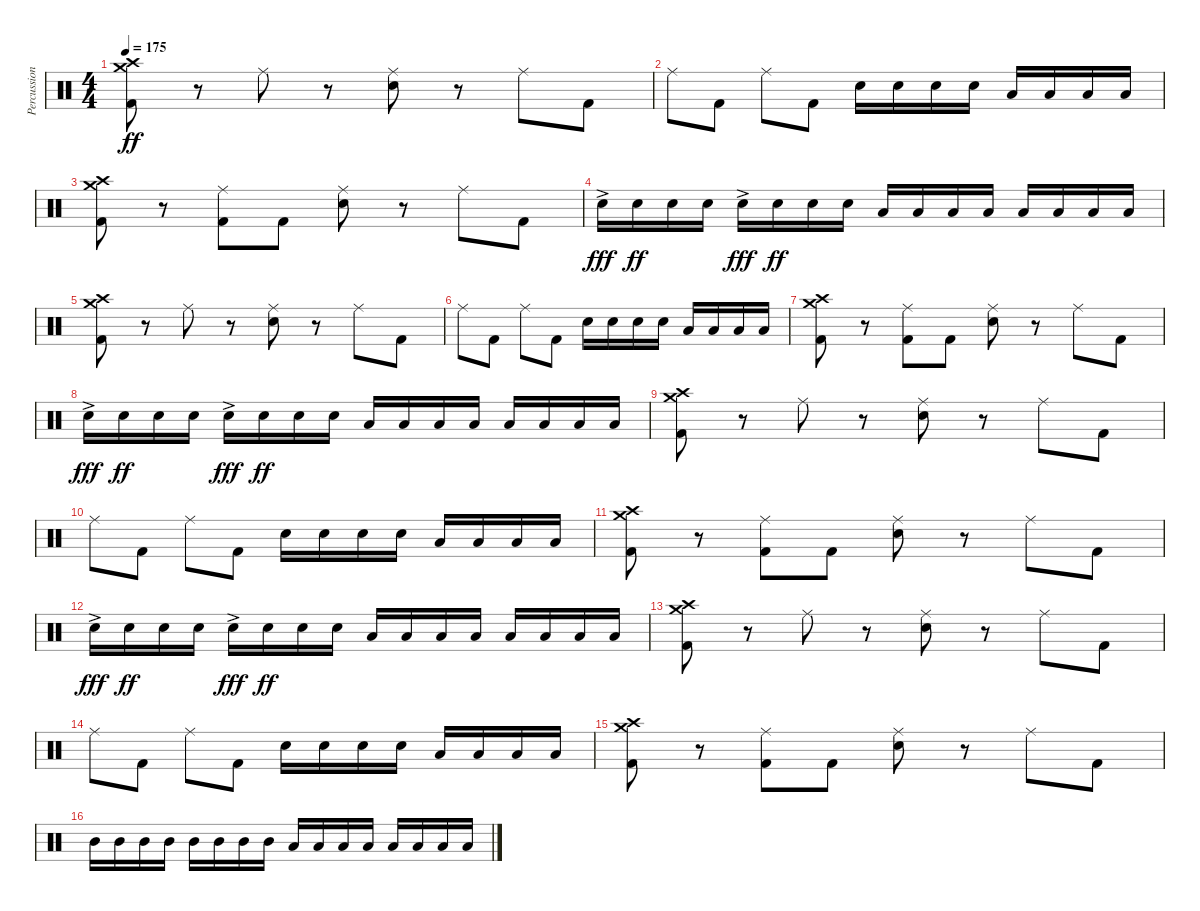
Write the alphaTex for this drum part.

\track ("Percussion" "Percussion") {instrument percussion}
\staff {score}
\articulation defaults
\ts (4 4)
\tempo 175
\clef neutral
\ks c
("Kick (hit) 2" "Crash medium (hit)" "Crash high (hit)").8{dy ff} r.8 "Ride (middle)".8 r.8 ("Electric Snare (hit)" "Ride (middle)").8 r.8 "Ride (middle)".8 "Kick (hit) 2".8 |
"Ride (middle)".8 "Kick (hit) 2".8 "Ride (middle)".8 "Kick (hit) 2".8 "Electric Snare (hit)".16 "Electric Snare (hit)".16 "Electric Snare (hit)".16 "Electric Snare (hit)".16 "Low Floor Tom (hit)".16 "Low Floor Tom (hit)".16 "Low Floor Tom (hit)".16 "Low Floor Tom (hit)".16 |
("Kick (hit) 2" "Crash medium (hit)" "Crash high (hit)").8 r.8 ("Kick (hit) 2" "Ride (middle)").8 "Kick (hit) 2".8 ("Electric Snare (hit)" "Ride (middle)").8 r.8 "Ride (middle)".8 "Kick (hit) 2".8 |
"Electric Snare (hit)"{ac}.16{dy fff} "Electric Snare (hit)".16{dy ff} "Electric Snare (hit)".16 "Electric Snare (hit)".16 "Electric Snare (hit)"{ac}.16{dy fff} "Electric Snare (hit)".16{dy ff} "Electric Snare (hit)".16 "Electric Snare (hit)".16 "Low Tom (hit)".16 "Low Tom (hit)".16 "Low Tom (hit)".16 "Low Tom (hit)".16 "Low Floor Tom (hit)".16 "Low Floor Tom (hit)".16 "Low Floor Tom (hit)".16 "Low Floor Tom (hit)".16 |
("Kick (hit) 2" "Crash medium (hit)" "Crash high (hit)").8 r.8 "Ride (middle)".8 r.8 ("Electric Snare (hit)" "Ride (middle)").8 r.8 "Ride (middle)".8 "Kick (hit) 2".8 |
"Ride (middle)".8 "Kick (hit) 2".8 "Ride (middle)".8 "Kick (hit) 2".8 "Electric Snare (hit)".16 "Electric Snare (hit)".16 "Electric Snare (hit)".16 "Electric Snare (hit)".16 "Low Floor Tom (hit)".16 "Low Floor Tom (hit)".16 "Low Floor Tom (hit)".16 "Low Floor Tom (hit)".16 |
("Kick (hit) 2" "Crash medium (hit)" "Crash high (hit)").8 r.8 ("Kick (hit) 2" "Ride (middle)").8 "Kick (hit) 2".8 ("Electric Snare (hit)" "Ride (middle)").8 r.8 "Ride (middle)".8 "Kick (hit) 2".8 |
"Electric Snare (hit)"{ac}.16{dy fff} "Electric Snare (hit)".16{dy ff} "Electric Snare (hit)".16 "Electric Snare (hit)".16 "Electric Snare (hit)"{ac}.16{dy fff} "Electric Snare (hit)".16{dy ff} "Electric Snare (hit)".16 "Electric Snare (hit)".16 "Low Tom (hit)".16 "Low Tom (hit)".16 "Low Tom (hit)".16 "Low Tom (hit)".16 "Low Floor Tom (hit)".16 "Low Floor Tom (hit)".16 "Low Floor Tom (hit)".16 "Low Floor Tom (hit)".16 |
("Kick (hit) 2" "Crash medium (hit)" "Crash high (hit)").8 r.8 "Ride (middle)".8 r.8 ("Electric Snare (hit)" "Ride (middle)").8 r.8 "Ride (middle)".8 "Kick (hit) 2".8 |
"Ride (middle)".8 "Kick (hit) 2".8 "Ride (middle)".8 "Kick (hit) 2".8 "Electric Snare (hit)".16 "Electric Snare (hit)".16 "Electric Snare (hit)".16 "Electric Snare (hit)".16 "Low Floor Tom (hit)".16 "Low Floor Tom (hit)".16 "Low Floor Tom (hit)".16 "Low Floor Tom (hit)".16 |
("Kick (hit) 2" "Crash medium (hit)" "Crash high (hit)").8 r.8 ("Kick (hit) 2" "Ride (middle)").8 "Kick (hit) 2".8 ("Electric Snare (hit)" "Ride (middle)").8 r.8 "Ride (middle)".8 "Kick (hit) 2".8 |
"Electric Snare (hit)"{ac}.16{dy fff} "Electric Snare (hit)".16{dy ff} "Electric Snare (hit)".16 "Electric Snare (hit)".16 "Electric Snare (hit)"{ac}.16{dy fff} "Electric Snare (hit)".16{dy ff} "Electric Snare (hit)".16 "Electric Snare (hit)".16 "Low Tom (hit)".16 "Low Tom (hit)".16 "Low Tom (hit)".16 "Low Tom (hit)".16 "Low Floor Tom (hit)".16 "Low Floor Tom (hit)".16 "Low Floor Tom (hit)".16 "Low Floor Tom (hit)".16 |
("Kick (hit) 2" "Crash medium (hit)" "Crash high (hit)").8 r.8 "Ride (middle)".8 r.8 ("Electric Snare (hit)" "Ride (middle)").8 r.8 "Ride (middle)".8 "Kick (hit) 2".8 |
"Ride (middle)".8 "Kick (hit) 2".8 "Ride (middle)".8 "Kick (hit) 2".8 "Electric Snare (hit)".16 "Electric Snare (hit)".16 "Electric Snare (hit)".16 "Electric Snare (hit)".16 "Low Floor Tom (hit)".16 "Low Floor Tom (hit)".16 "Low Floor Tom (hit)".16 "Low Floor Tom (hit)".16 |
("Kick (hit) 2" "Crash medium (hit)" "Crash high (hit)").8 r.8 ("Kick (hit) 2" "Ride (middle)").8 "Kick (hit) 2".8 ("Electric Snare (hit)" "Ride (middle)").8 r.8 "Ride (middle)".8 "Kick (hit) 2".8 |
"Mid Tom (hit)".16 "Mid Tom (hit)".16 "Mid Tom (hit)".16 "Mid Tom (hit)".16 "Mid Tom (hit)".16 "Mid Tom (hit)".16 "Mid Tom (hit)".16 "Mid Tom (hit)".16 "Low Tom (hit)".16 "Low Tom (hit)".16 "Low Tom (hit)".16 "Low Tom (hit)".16 "Low Floor Tom (hit)".16 "Low Floor Tom (hit)".16 "Low Floor Tom (hit)".16 "Low Floor Tom (hit)".16
